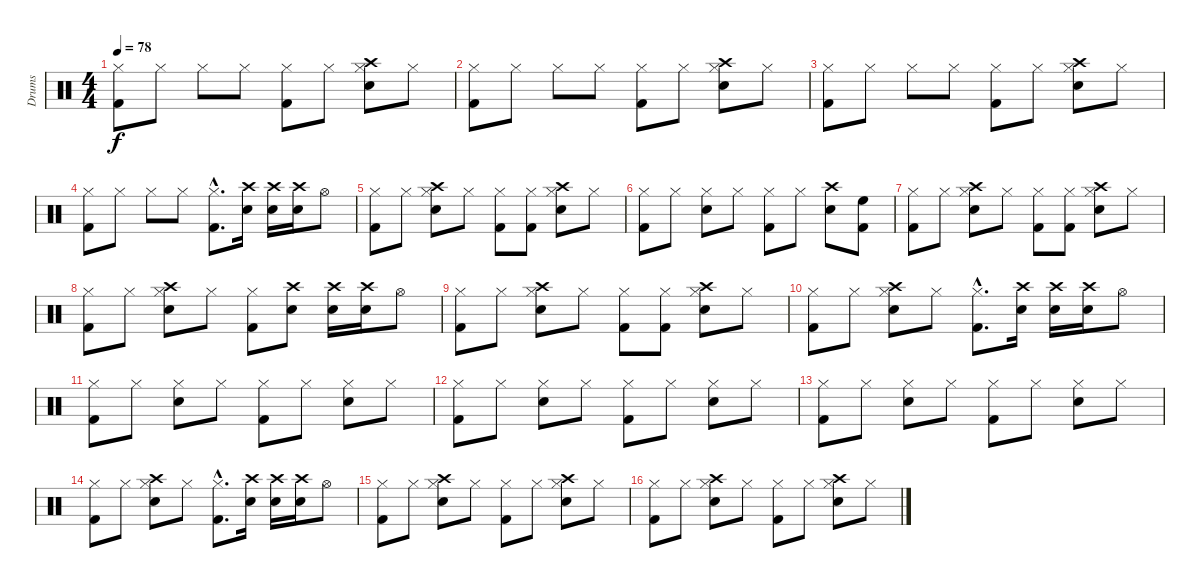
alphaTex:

\track ("Drums" "Drums") {instrument percussion}
\staff {score}
\articulation defaults
\ts (4 4)
\tempo 78
\clef neutral
\ks c
("Hi-Hat (closed)" "Kick (hit) 2").8{dy f} "Hi-Hat (closed)".8 "Hi-Hat (closed)".8 "Hi-Hat (closed)".8 ("Hi-Hat (closed)" "Kick (hit) 2").8 "Hi-Hat (closed)".8 ("Crash high (hit)" "Hi-Hat (closed)" "Snare (hit) 2").8 "Hi-Hat (closed)".8 |
("Hi-Hat (closed)" "Kick (hit) 2").8 "Hi-Hat (closed)".8 "Hi-Hat (closed)".8 "Hi-Hat (closed)".8 ("Hi-Hat (closed)" "Kick (hit) 2").8 "Hi-Hat (closed)".8 ("Crash high (hit)" "Hi-Hat (closed)" "Snare (hit) 2").8 "Hi-Hat (closed)".8 |
("Hi-Hat (closed)" "Kick (hit) 2").8 "Hi-Hat (closed)".8 "Hi-Hat (closed)".8 "Hi-Hat (closed)".8 ("Hi-Hat (closed)" "Kick (hit) 2").8 "Hi-Hat (closed)".8 ("Crash high (hit)" "Hi-Hat (closed)" "Snare (hit) 2").8 "Hi-Hat (closed)".8 |
("Hi-Hat (closed)" "Kick (hit) 2").8 "Hi-Hat (closed)".8 "Hi-Hat (closed)".8 "Hi-Hat (closed)".8 ("Hi-Hat (closed)"{hac} "Kick (hit) 2"{hac}).8{d} ("Crash high (hit)" "Snare (hit) 2").16 ("Crash high (hit)" "Snare (hit) 2").16 ("Crash high (hit)" "Snare (hit) 2").16 "Hi-Hat (open)".8 |
("Hi-Hat (closed)" "Kick (hit) 2").8 "Hi-Hat (closed)".8 ("Crash high (hit)" "Hi-Hat (closed)" "Snare (hit) 2").8 "Hi-Hat (closed)".8 ("Hi-Hat (closed)" "Kick (hit) 2").8 ("Hi-Hat (closed)" "Kick (hit) 2").8 ("Crash high (hit)" "Hi-Hat (closed)" "Snare (hit) 2").8 "Hi-Hat (closed)".8 |
("Hi-Hat (closed)" "Kick (hit) 2").8 "Hi-Hat (closed)".8 ("Hi-Hat (closed)" "Snare (hit) 2").8 "Hi-Hat (closed)".8 ("Hi-Hat (closed)" "Kick (hit) 2").8 "Hi-Hat (closed)".8 ("Crash high (hit)" "Snare (hit) 2").8 ("High Floor Tom (hit)" "Kick (hit) 2").8 |
("Hi-Hat (closed)" "Kick (hit) 2").8 "Hi-Hat (closed)".8 ("Crash high (hit)" "Hi-Hat (closed)" "Snare (hit) 2").8 "Hi-Hat (closed)".8 ("Hi-Hat (closed)" "Kick (hit) 2").8 ("Hi-Hat (closed)" "Kick (hit) 2").8 ("Crash high (hit)" "Hi-Hat (closed)" "Snare (hit) 2").8 "Hi-Hat (closed)".8 |
("Hi-Hat (closed)" "Kick (hit) 2").8 "Hi-Hat (closed)".8 ("Crash high (hit)" "Hi-Hat (closed)" "Snare (hit) 2").8 "Hi-Hat (closed)".8 ("Hi-Hat (closed)" "Kick (hit) 2").8 ("Crash high (hit)" "Snare (hit) 2").8 ("Crash high (hit)" "Snare (hit) 2").16 ("Crash high (hit)" "Snare (hit) 2").16 "Hi-Hat (open)".8 |
("Hi-Hat (closed)" "Kick (hit) 2").8 "Hi-Hat (closed)".8 ("Crash high (hit)" "Hi-Hat (closed)" "Snare (hit) 2").8 "Hi-Hat (closed)".8 ("Hi-Hat (closed)" "Kick (hit) 2").8 ("Hi-Hat (closed)" "Kick (hit) 2").8 ("Crash high (hit)" "Hi-Hat (closed)" "Snare (hit) 2").8 "Hi-Hat (closed)".8 |
("Hi-Hat (closed)" "Kick (hit) 2").8 "Hi-Hat (closed)".8 ("Crash high (hit)" "Hi-Hat (closed)" "Snare (hit) 2").8 "Hi-Hat (closed)".8 ("Hi-Hat (closed)"{hac} "Kick (hit) 2"{hac}).8{d} ("Crash high (hit)" "Snare (hit) 2").16 ("Crash high (hit)" "Snare (hit) 2").16 ("Crash high (hit)" "Snare (hit) 2").16 "Hi-Hat (open)".8 |
("Hi-Hat (closed)" "Kick (hit) 2").8 "Hi-Hat (closed)".8 ("Hi-Hat (closed)" "Snare (hit) 2").8 "Hi-Hat (closed)".8 ("Hi-Hat (closed)" "Kick (hit) 2").8 "Hi-Hat (closed)".8 ("Hi-Hat (closed)" "Snare (hit) 2").8 "Hi-Hat (closed)".8 |
("Hi-Hat (closed)" "Kick (hit) 2").8 "Hi-Hat (closed)".8 ("Hi-Hat (closed)" "Snare (hit) 2").8 "Hi-Hat (closed)".8 ("Hi-Hat (closed)" "Kick (hit) 2").8 "Hi-Hat (closed)".8 ("Hi-Hat (closed)" "Snare (hit) 2").8 "Hi-Hat (closed)".8 |
("Hi-Hat (closed)" "Kick (hit) 2").8 "Hi-Hat (closed)".8 ("Hi-Hat (closed)" "Snare (hit) 2").8 "Hi-Hat (closed)".8 ("Hi-Hat (closed)" "Kick (hit) 2").8 "Hi-Hat (closed)".8 ("Hi-Hat (closed)" "Snare (hit) 2").8 "Hi-Hat (closed)".8 |
("Hi-Hat (closed)" "Kick (hit) 2").8 "Hi-Hat (closed)".8 ("Crash high (hit)" "Hi-Hat (closed)" "Snare (hit) 2").8 "Hi-Hat (closed)".8 ("Hi-Hat (closed)"{hac} "Kick (hit) 2"{hac}).8{d} ("Crash high (hit)" "Snare (hit) 2").16 ("Crash high (hit)" "Snare (hit) 2").16 ("Crash high (hit)" "Snare (hit) 2").16 "Hi-Hat (open)".8 |
("Hi-Hat (closed)" "Kick (hit) 2").8 "Hi-Hat (closed)".8 ("Crash high (hit)" "Hi-Hat (closed)" "Snare (hit) 2").8 "Hi-Hat (closed)".8 ("Hi-Hat (closed)" "Kick (hit) 2").8 "Hi-Hat (closed)".8 ("Crash high (hit)" "Hi-Hat (closed)" "Snare (hit) 2").8 "Hi-Hat (closed)".8 |
("Hi-Hat (closed)" "Kick (hit) 2").8 "Hi-Hat (closed)".8 ("Crash high (hit)" "Hi-Hat (closed)" "Snare (hit) 2").8 "Hi-Hat (closed)".8 ("Hi-Hat (closed)" "Kick (hit) 2").8 "Hi-Hat (closed)".8 ("Crash high (hit)" "Hi-Hat (closed)" "Snare (hit) 2").8 "Hi-Hat (closed)".8
